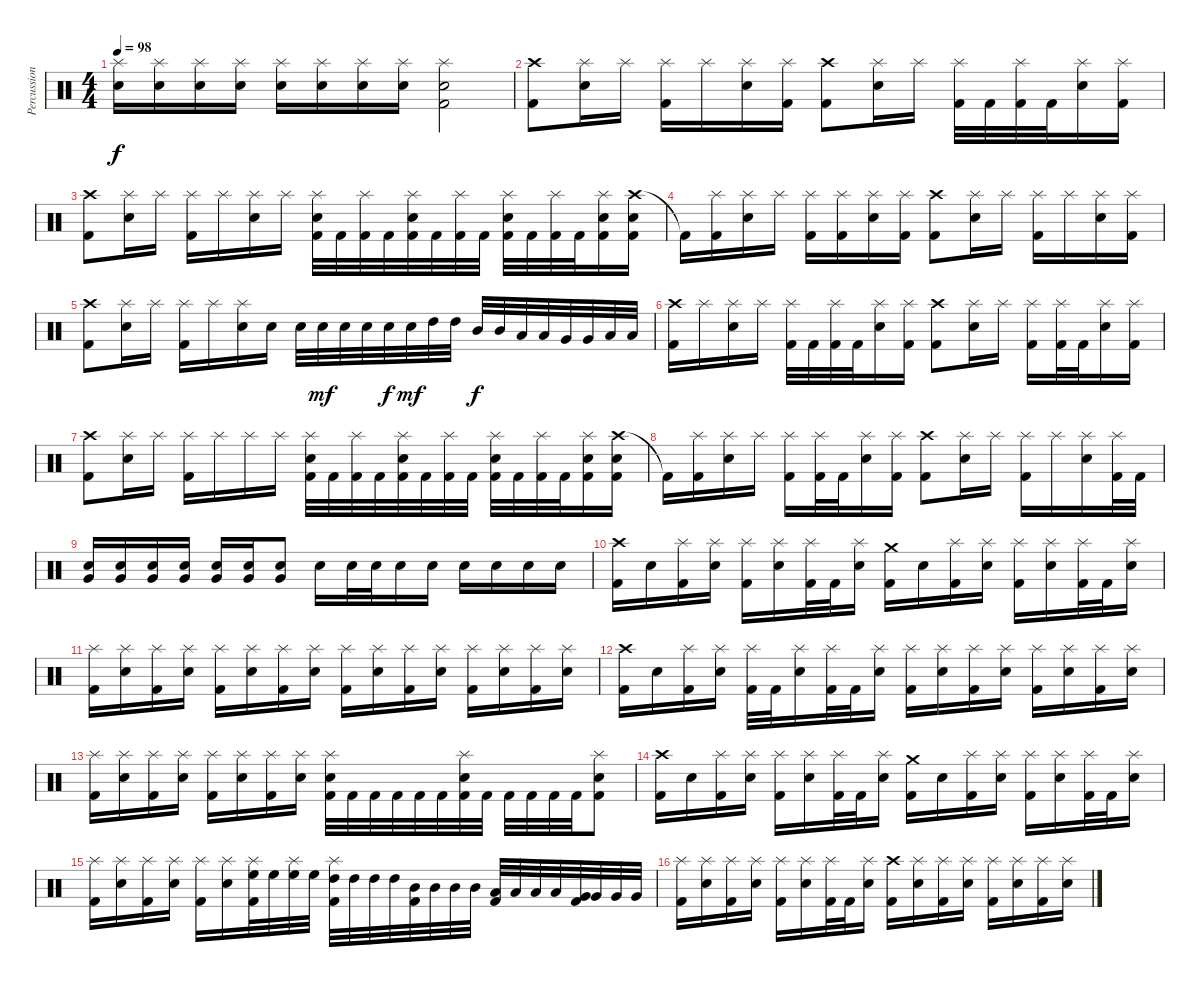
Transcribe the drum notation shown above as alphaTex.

\track ("Percussion" "Percussion") {instrument percussion}
\staff {score}
\articulation defaults
\ts (4 4)
\tempo 98
\clef neutral
\ks c
("Splash (hit)" "Snare (hit) 2").16{dy f} ("Splash (hit)" "Snare (hit) 2").16 ("Splash (hit)" "Snare (hit) 2").16 ("Splash (hit)" "Snare (hit) 2").16 ("Splash (hit)" "Snare (hit) 2").16 ("Splash (hit)" "Snare (hit) 2").16 ("Splash (hit)" "Snare (hit) 2").16 ("Splash (hit)" "Snare (hit) 2").16 ("Splash (hit)" "Snare (hit) 2" "Kick (hit) 2").2 |
("Crash high (hit)" "Kick (hit) 2").8 ("Splash (hit)" "Snare (hit) 2").16 "Splash (hit)".16 ("Splash (hit)" "Kick (hit) 2").16 "Splash (hit)".16 ("Splash (hit)" "Snare (hit) 2").16 ("Splash (hit)" "Kick (hit) 2").16 ("Crash high (hit)" "Kick (hit) 2").8 ("Splash (hit)" "Snare (hit) 2").16 "Splash (hit)".16 ("Splash (hit)" "Kick (hit) 2").32 "Kick (hit) 2".32 ("Splash (hit)" "Kick (hit) 2").32 "Kick (hit) 2".32 ("Splash (hit)" "Snare (hit) 2").16 ("Splash (hit)" "Kick (hit) 2").16 |
("Crash high (hit)" "Kick (hit) 2").8 ("Splash (hit)" "Snare (hit) 2").16 "Splash (hit)".16 ("Splash (hit)" "Kick (hit) 2").16 "Splash (hit)".16 ("Splash (hit)" "Snare (hit) 2").16 "Splash (hit)".16 ("Splash (hit)" "Snare (hit) 2" "Kick (hit) 2").32 "Kick (hit) 2".32 ("Splash (hit)" "Kick (hit) 2").32 "Kick (hit) 2".32 ("Splash (hit)" "Snare (hit) 2" "Kick (hit) 2").32 "Kick (hit) 2".32 ("Splash (hit)" "Kick (hit) 2").32 "Kick (hit) 2".32 ("Splash (hit)" "Snare (hit) 2" "Kick (hit) 2").32 "Kick (hit) 2".32 ("Splash (hit)" "Kick (hit) 2").32 "Kick (hit) 2".32 ("Splash (hit)" "Snare (hit) 2" "Kick (hit) 2").16 ("Crash high (hit)" "Snare (hit) 2" "Kick (hit) 2").16 |
"Kick (hit) 2"{t}.16 ("Splash (hit)" "Kick (hit) 2").16 ("Splash (hit)" "Snare (hit) 2").16 "Splash (hit)".16 ("Splash (hit)" "Kick (hit) 2").16 ("Splash (hit)" "Kick (hit) 2").16 ("Splash (hit)" "Snare (hit) 2").16 ("Splash (hit)" "Kick (hit) 2").16 ("Crash high (hit)" "Kick (hit) 2").8 ("Splash (hit)" "Snare (hit) 2").16 "Splash (hit)".16 ("Splash (hit)" "Kick (hit) 2").16 "Splash (hit)".16 ("Splash (hit)" "Snare (hit) 2").16 ("Splash (hit)" "Kick (hit) 2").16 |
("Crash high (hit)" "Kick (hit) 2").8 ("Splash (hit)" "Snare (hit) 2").16 "Splash (hit)".16 ("Splash (hit)" "Kick (hit) 2").16 "Splash (hit)".16 ("Splash (hit)" "Snare (hit) 2").16 "Snare (hit) 2".16 "Snare (hit) 2".32 "Snare (hit) 2".32{dy mf} "Snare (hit) 2".32 "Snare (hit) 2".32 "Snare (hit) 2".32{dy f} "Snare (hit) 2".32{dy mf} "High Tom (hit)".32 "High Tom (hit)".32 "Mid Tom (hit)".32{dy f} "Mid Tom (hit)".32 "Low Tom (hit)".32 "Low Tom (hit)".32 "Very Low Tom (hit)".32 "Very Low Tom (hit)".32 "Low Floor Tom (hit)".32 "Low Floor Tom (hit)".32 |
("Crash high (hit)" "Kick (hit) 2").16 "Splash (hit)".16 ("Splash (hit)" "Snare (hit) 2").16 "Splash (hit)".16 ("Splash (hit)" "Kick (hit) 2").32 "Kick (hit) 2".32 ("Splash (hit)" "Kick (hit) 2").32 "Kick (hit) 2".32 ("Splash (hit)" "Snare (hit) 2").16 ("Splash (hit)" "Kick (hit) 2").16 ("Crash high (hit)" "Kick (hit) 2").8 ("Splash (hit)" "Snare (hit) 2").16 "Splash (hit)".16 ("Splash (hit)" "Kick (hit) 2").16 ("Splash (hit)" "Kick (hit) 2").32 "Kick (hit) 2".32 ("Splash (hit)" "Snare (hit) 2").16 ("Splash (hit)" "Kick (hit) 2").16 |
("Crash high (hit)" "Kick (hit) 2").8 ("Splash (hit)" "Snare (hit) 2").16 "Splash (hit)".16 ("Splash (hit)" "Kick (hit) 2").16 "Splash (hit)".16 "Splash (hit)".16 "Splash (hit)".16 ("Splash (hit)" "Snare (hit) 2" "Kick (hit) 2").32 "Kick (hit) 2".32 ("Splash (hit)" "Kick (hit) 2").32 "Kick (hit) 2".32 ("Splash (hit)" "Snare (hit) 2" "Kick (hit) 2").32 "Kick (hit) 2".32 ("Splash (hit)" "Kick (hit) 2").32 "Kick (hit) 2".32 ("Splash (hit)" "Snare (hit) 2" "Kick (hit) 2").32 "Kick (hit) 2".32 ("Splash (hit)" "Kick (hit) 2").32 "Kick (hit) 2".32 ("Splash (hit)" "Snare (hit) 2" "Kick (hit) 2").16 ("Crash high (hit)" "Snare (hit) 2" "Kick (hit) 2").16 |
"Kick (hit) 2"{t}.16 ("Splash (hit)" "Kick (hit) 2").16 ("Splash (hit)" "Snare (hit) 2").16 "Splash (hit)".16 ("Splash (hit)" "Kick (hit) 2").16 ("Splash (hit)" "Kick (hit) 2").32 "Kick (hit) 2".32 ("Splash (hit)" "Snare (hit) 2").16 ("Splash (hit)" "Kick (hit) 2").16 ("Crash high (hit)" "Kick (hit) 2").8 ("Splash (hit)" "Snare (hit) 2").16 "Splash (hit)".16 ("Splash (hit)" "Kick (hit) 2").16 "Splash (hit)".16 ("Splash (hit)" "Snare (hit) 2").16 ("Splash (hit)" "Kick (hit) 2").32 "Kick (hit) 2".32 |
("Snare (hit) 2" "Very Low Tom (hit)").16 ("Snare (hit) 2" "Very Low Tom (hit)").16 ("Snare (hit) 2" "Very Low Tom (hit)").16 ("Snare (hit) 2" "Very Low Tom (hit)").16 ("Snare (hit) 2" "Very Low Tom (hit)").16 ("Snare (hit) 2" "Very Low Tom (hit)").16 ("Snare (hit) 2" "Very Low Tom (hit)").8 "Snare (hit) 2".16 "Snare (hit) 2".32 "Snare (hit) 2".32 "Snare (hit) 2".16 "Snare (hit) 2".16 "Snare (hit) 2".16 "Snare (hit) 2".16 "Snare (hit) 2".16 "Snare (hit) 2".16 |
("Crash high (hit)" "Kick (hit) 2").16 "Snare (hit) 2".16 ("Splash (hit)" "Kick (hit) 2").16 ("Splash (hit)" "Snare (hit) 2").16 ("Splash (hit)" "Kick (hit) 2").16 ("Splash (hit)" "Snare (hit) 2").16 ("Splash (hit)" "Kick (hit) 2").32 "Kick (hit) 2".32 ("Splash (hit)" "Snare (hit) 2").16 ("Crash medium (hit)" "Kick (hit) 2").16 "Snare (hit) 2".16 ("Splash (hit)" "Kick (hit) 2").16 ("Splash (hit)" "Snare (hit) 2").16 ("Splash (hit)" "Kick (hit) 2").16 ("Splash (hit)" "Snare (hit) 2").16 ("Splash (hit)" "Kick (hit) 2").32 "Kick (hit) 2".32 ("Splash (hit)" "Snare (hit) 2").16 |
("Splash (hit)" "Kick (hit) 2").16 ("Splash (hit)" "Snare (hit) 2").16 ("Splash (hit)" "Kick (hit) 2").16 ("Splash (hit)" "Snare (hit) 2").16 ("Splash (hit)" "Kick (hit) 2").16 ("Splash (hit)" "Snare (hit) 2").16 ("Splash (hit)" "Kick (hit) 2").16 ("Splash (hit)" "Snare (hit) 2").16 ("Splash (hit)" "Kick (hit) 2").16 ("Splash (hit)" "Snare (hit) 2").16 ("Splash (hit)" "Kick (hit) 2").16 ("Splash (hit)" "Snare (hit) 2").16 ("Splash (hit)" "Kick (hit) 2").16 ("Splash (hit)" "Snare (hit) 2").16 ("Splash (hit)" "Kick (hit) 2").16 ("Splash (hit)" "Snare (hit) 2").16 |
("Crash high (hit)" "Kick (hit) 2").16 "Snare (hit) 2".16 ("Splash (hit)" "Kick (hit) 2").16 ("Splash (hit)" "Snare (hit) 2").16 ("Splash (hit)" "Kick (hit) 2").32 "Kick (hit) 2".32 ("Splash (hit)" "Snare (hit) 2").16 ("Splash (hit)" "Kick (hit) 2").32 "Kick (hit) 2".32 ("Splash (hit)" "Snare (hit) 2").16 ("Splash (hit)" "Kick (hit) 2").16 ("Splash (hit)" "Snare (hit) 2").16 ("Splash (hit)" "Kick (hit) 2").16 ("Splash (hit)" "Snare (hit) 2").16 ("Splash (hit)" "Kick (hit) 2").16 ("Splash (hit)" "Snare (hit) 2").16 ("Splash (hit)" "Kick (hit) 2").16 ("Splash (hit)" "Snare (hit) 2").16 |
("Splash (hit)" "Kick (hit) 2").16 ("Splash (hit)" "Snare (hit) 2").16 ("Splash (hit)" "Kick (hit) 2").16 ("Splash (hit)" "Snare (hit) 2").16 ("Splash (hit)" "Kick (hit) 2").16 ("Splash (hit)" "Snare (hit) 2").16 ("Splash (hit)" "Kick (hit) 2").16 ("Splash (hit)" "Snare (hit) 2").16 ("Splash (hit)" "Snare (hit) 2" "Kick (hit) 2").32 "Kick (hit) 2".32 "Kick (hit) 2".32 "Kick (hit) 2".32 "Kick (hit) 2".32 "Kick (hit) 2".32 ("Splash (hit)" "Snare (hit) 2" "Kick (hit) 2").32 "Kick (hit) 2".32 "Kick (hit) 2".32 "Kick (hit) 2".32 "Kick (hit) 2".32 "Kick (hit) 2".32 ("Splash (hit)" "Snare (hit) 2" "Kick (hit) 2").8 |
("Crash high (hit)" "Kick (hit) 2").16 "Snare (hit) 2".16 ("Splash (hit)" "Kick (hit) 2").16 ("Splash (hit)" "Snare (hit) 2").16 ("Splash (hit)" "Kick (hit) 2").16 ("Splash (hit)" "Snare (hit) 2").16 ("Splash (hit)" "Kick (hit) 2").32 "Kick (hit) 2".32 ("Splash (hit)" "Snare (hit) 2").16 ("Crash medium (hit)" "Kick (hit) 2").16 "Snare (hit) 2".16 ("Splash (hit)" "Kick (hit) 2").16 ("Splash (hit)" "Snare (hit) 2").16 ("Splash (hit)" "Kick (hit) 2").16 ("Splash (hit)" "Snare (hit) 2").16 ("Splash (hit)" "Kick (hit) 2").32 "Kick (hit) 2".32 ("Splash (hit)" "Snare (hit) 2").16 |
("Splash (hit)" "Kick (hit) 2").16 ("Splash (hit)" "Snare (hit) 2").16 ("Splash (hit)" "Kick (hit) 2").16 ("Splash (hit)" "Snare (hit) 2").16 ("Splash (hit)" "Kick (hit) 2").16 ("Splash (hit)" "Snare (hit) 2").16 ("Splash (hit)" "High Floor Tom (hit)" "Kick (hit) 2").32 "High Floor Tom (hit)".32 ("Splash (hit)" "High Floor Tom (hit)").32 "High Floor Tom (hit)".32 ("Splash (hit)" "High Tom (hit)" "Kick (hit) 2").32 "High Tom (hit)".32 "High Tom (hit)".32 "High Tom (hit)".32 ("Mid Tom (hit)" "Kick (hit) 2").32 "Mid Tom (hit)".32 "Mid Tom (hit)".32 "Mid Tom (hit)".32 ("Low Tom (hit)" "Kick (hit) 2").32 "Low Tom (hit)".32 "Low Tom (hit)".32 "Low Tom (hit)".32 ("Very Low Tom (hit)" "Kick (hit) 2").32 "Very Low Tom (hit)".32 "Very Low Tom (hit)".32 "Very Low Tom (hit)".32 |
("Splash (hit)" "Kick (hit) 2").16 ("Splash (hit)" "Snare (hit) 2").16 ("Splash (hit)" "Kick (hit) 2").16 ("Splash (hit)" "Snare (hit) 2").16 ("Splash (hit)" "Kick (hit) 2").16 ("Splash (hit)" "Snare (hit) 2").16 ("Splash (hit)" "Kick (hit) 2").32 "Kick (hit) 2".32 ("Splash (hit)" "Snare (hit) 2").16 ("Crash high (hit)" "Kick (hit) 2").16 ("Splash (hit)" "Snare (hit) 2").16 ("Splash (hit)" "Kick (hit) 2").16 ("Splash (hit)" "Snare (hit) 2").16 ("Splash (hit)" "Kick (hit) 2").16 ("Splash (hit)" "Snare (hit) 2").16 ("Splash (hit)" "Kick (hit) 2").16 ("Splash (hit)" "Snare (hit) 2").16
